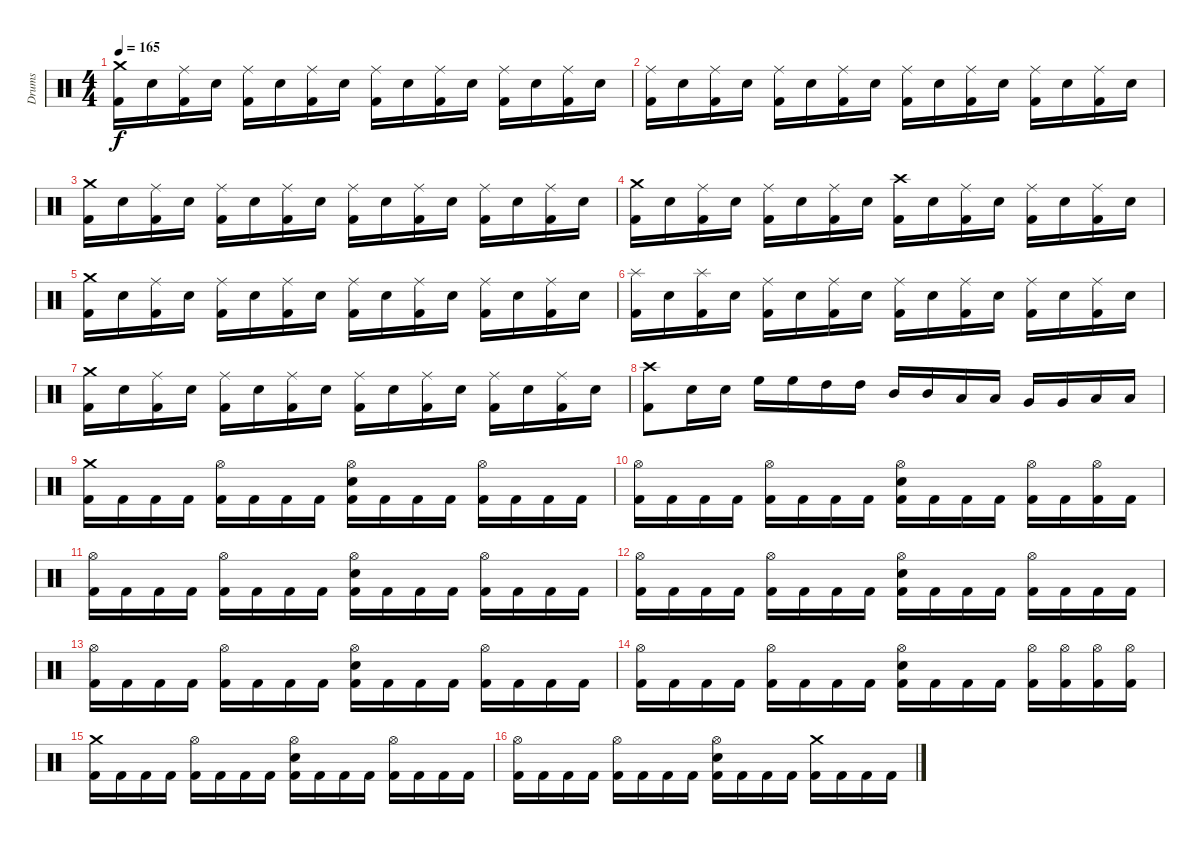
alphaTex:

\track ("Drums" "Drums") {instrument percussion}
\staff {score}
\articulation defaults
\ts (4 4)
\tempo 165
\clef neutral
\ks c
("Kick (hit) 2" "Crash medium (hit)").16{dy f} "Electric Snare (hit)".16 ("Kick (hit) 2" "Ride (middle)").16 "Electric Snare (hit)".16 ("Kick (hit) 2" "Ride (middle)").16 "Electric Snare (hit)".16 ("Kick (hit) 2" "Ride (middle)").16 "Electric Snare (hit)".16 ("Kick (hit) 2" "Ride (middle)").16 "Electric Snare (hit)".16 ("Kick (hit) 2" "Ride (middle)").16 "Electric Snare (hit)".16 ("Kick (hit) 2" "Ride (middle)").16 "Electric Snare (hit)".16 ("Kick (hit) 2" "Ride (middle)").16 "Electric Snare (hit)".16 |
("Kick (hit) 2" "Ride (middle)").16 "Electric Snare (hit)".16 ("Kick (hit) 2" "Ride (middle)").16 "Electric Snare (hit)".16 ("Kick (hit) 2" "Ride (middle)").16 "Electric Snare (hit)".16 ("Kick (hit) 2" "Ride (middle)").16 "Electric Snare (hit)".16 ("Kick (hit) 2" "Ride (middle)").16 "Electric Snare (hit)".16 ("Kick (hit) 2" "Ride (middle)").16 "Electric Snare (hit)".16 ("Kick (hit) 2" "Ride (middle)").16 "Electric Snare (hit)".16 ("Kick (hit) 2" "Ride (middle)").16 "Electric Snare (hit)".16 |
("Kick (hit) 2" "Crash medium (hit)").16 "Electric Snare (hit)".16 ("Kick (hit) 2" "Ride (middle)").16 "Electric Snare (hit)".16 ("Kick (hit) 2" "Ride (middle)").16 "Electric Snare (hit)".16 ("Kick (hit) 2" "Ride (middle)").16 "Electric Snare (hit)".16 ("Kick (hit) 2" "Ride (middle)").16 "Electric Snare (hit)".16 ("Kick (hit) 2" "Ride (middle)").16 "Electric Snare (hit)".16 ("Kick (hit) 2" "Ride (middle)").16 "Electric Snare (hit)".16 ("Kick (hit) 2" "Ride (middle)").16 "Electric Snare (hit)".16 |
("Kick (hit) 2" "Crash medium (hit)").16 "Electric Snare (hit)".16 ("Kick (hit) 2" "Ride (middle)").16 "Electric Snare (hit)".16 ("Kick (hit) 2" "Ride (middle)").16 "Electric Snare (hit)".16 ("Kick (hit) 2" "Ride (middle)").16 "Electric Snare (hit)".16 ("Kick (hit) 2" "Crash high (hit)").16 "Electric Snare (hit)".16 ("Kick (hit) 2" "Ride (middle)").16 "Electric Snare (hit)".16 ("Kick (hit) 2" "Ride (middle)").16 "Electric Snare (hit)".16 ("Kick (hit) 2" "Ride (middle)").16 "Electric Snare (hit)".16 |
("Kick (hit) 2" "Crash medium (hit)").16 "Electric Snare (hit)".16 ("Kick (hit) 2" "Ride (middle)").16 "Electric Snare (hit)".16 ("Kick (hit) 2" "Ride (middle)").16 "Electric Snare (hit)".16 ("Kick (hit) 2" "Ride (middle)").16 "Electric Snare (hit)".16 ("Kick (hit) 2" "Ride (middle)").16 "Electric Snare (hit)".16 ("Kick (hit) 2" "Ride (middle)").16 "Electric Snare (hit)".16 ("Kick (hit) 2" "Ride (middle)").16 "Electric Snare (hit)".16 ("Kick (hit) 2" "Ride (middle)").16 "Electric Snare (hit)".16 |
("Kick (hit) 2" "Splash (hit)").16 "Electric Snare (hit)".16 ("Kick (hit) 2" "Splash (hit)").16 "Electric Snare (hit)".16 ("Kick (hit) 2" "Ride (middle)").16 "Electric Snare (hit)".16 ("Kick (hit) 2" "Ride (middle)").16 "Electric Snare (hit)".16 ("Kick (hit) 2" "Ride (middle)").16 "Electric Snare (hit)".16 ("Kick (hit) 2" "Ride (middle)").16 "Electric Snare (hit)".16 ("Kick (hit) 2" "Ride (middle)").16 "Electric Snare (hit)".16 ("Kick (hit) 2" "Ride (middle)").16 "Electric Snare (hit)".16 |
("Kick (hit) 2" "Crash medium (hit)").16 "Electric Snare (hit)".16 ("Kick (hit) 2" "Ride (middle)").16 "Electric Snare (hit)".16 ("Kick (hit) 2" "Ride (middle)").16 "Electric Snare (hit)".16 ("Kick (hit) 2" "Ride (middle)").16 "Electric Snare (hit)".16 ("Kick (hit) 2" "Ride (middle)").16 "Electric Snare (hit)".16 ("Kick (hit) 2" "Ride (middle)").16 "Electric Snare (hit)".16 ("Kick (hit) 2" "Ride (middle)").16 "Electric Snare (hit)".16 ("Kick (hit) 2" "Ride (middle)").16 "Electric Snare (hit)".16 |
("Kick (hit) 2" "Crash high (hit)").8 "Electric Snare (hit)".16 "Electric Snare (hit)".16 "High Floor Tom (hit)".16 "High Floor Tom (hit)".16 "High Tom (hit)".16 "High Tom (hit)".16 "Mid Tom (hit)".16 "Mid Tom (hit)".16 "Low Tom (hit)".16 "Low Tom (hit)".16 "Very Low Tom (hit)".16 "Very Low Tom (hit)".16 "Low Floor Tom (hit)".16 "Low Floor Tom (hit)".16 |
("Kick (hit) 2" "Crash medium (hit)").16 "Kick (hit) 2".16 "Kick (hit) 2".16 "Kick (hit) 2".16 ("Kick (hit) 2" "Hi-Hat (open)").16 "Kick (hit) 2".16 "Kick (hit) 2".16 "Kick (hit) 2".16 ("Kick (hit) 2" "Electric Snare (hit)" "Hi-Hat (open)").16 "Kick (hit) 2".16 "Kick (hit) 2".16 "Kick (hit) 2".16 ("Kick (hit) 2" "Hi-Hat (open)").16 "Kick (hit) 2".16 "Kick (hit) 2".16 "Kick (hit) 2".16 |
("Kick (hit) 2" "Hi-Hat (open)").16 "Kick (hit) 2".16 "Kick (hit) 2".16 "Kick (hit) 2".16 ("Kick (hit) 2" "Hi-Hat (open)").16 "Kick (hit) 2".16 "Kick (hit) 2".16 "Kick (hit) 2".16 ("Kick (hit) 2" "Electric Snare (hit)" "Hi-Hat (open)").16 "Kick (hit) 2".16 "Kick (hit) 2".16 "Kick (hit) 2".16 ("Kick (hit) 2" "Hi-Hat (open)").16 "Kick (hit) 2".16 ("Kick (hit) 2" "Hi-Hat (open)").16 "Kick (hit) 2".16 |
("Kick (hit) 2" "Hi-Hat (open)").16 "Kick (hit) 2".16 "Kick (hit) 2".16 "Kick (hit) 2".16 ("Kick (hit) 2" "Hi-Hat (open)").16 "Kick (hit) 2".16 "Kick (hit) 2".16 "Kick (hit) 2".16 ("Kick (hit) 2" "Electric Snare (hit)" "Hi-Hat (open)").16 "Kick (hit) 2".16 "Kick (hit) 2".16 "Kick (hit) 2".16 ("Kick (hit) 2" "Hi-Hat (open)").16 "Kick (hit) 2".16 "Kick (hit) 2".16 "Kick (hit) 2".16 |
("Kick (hit) 2" "Hi-Hat (open)").16 "Kick (hit) 2".16 "Kick (hit) 2".16 "Kick (hit) 2".16 ("Kick (hit) 2" "Hi-Hat (open)").16 "Kick (hit) 2".16 "Kick (hit) 2".16 "Kick (hit) 2".16 ("Kick (hit) 2" "Electric Snare (hit)" "Hi-Hat (open)").16 "Kick (hit) 2".16 "Kick (hit) 2".16 "Kick (hit) 2".16 ("Kick (hit) 2" "Hi-Hat (open)").16 "Kick (hit) 2".16 "Kick (hit) 2".16 "Kick (hit) 2".16 |
("Kick (hit) 2" "Hi-Hat (open)").16 "Kick (hit) 2".16 "Kick (hit) 2".16 "Kick (hit) 2".16 ("Kick (hit) 2" "Hi-Hat (open)").16 "Kick (hit) 2".16 "Kick (hit) 2".16 "Kick (hit) 2".16 ("Kick (hit) 2" "Electric Snare (hit)" "Hi-Hat (open)").16 "Kick (hit) 2".16 "Kick (hit) 2".16 "Kick (hit) 2".16 ("Kick (hit) 2" "Hi-Hat (open)").16 "Kick (hit) 2".16 "Kick (hit) 2".16 "Kick (hit) 2".16 |
("Kick (hit) 2" "Hi-Hat (open)").16 "Kick (hit) 2".16 "Kick (hit) 2".16 "Kick (hit) 2".16 ("Kick (hit) 2" "Hi-Hat (open)").16 "Kick (hit) 2".16 "Kick (hit) 2".16 "Kick (hit) 2".16 ("Kick (hit) 2" "Electric Snare (hit)" "Hi-Hat (open)").16 "Kick (hit) 2".16 "Kick (hit) 2".16 "Kick (hit) 2".16 ("Kick (hit) 2" "Hi-Hat (open)").16 ("Kick (hit) 2" "Hi-Hat (open)").16 ("Kick (hit) 2" "Hi-Hat (open)").16 ("Kick (hit) 2" "Hi-Hat (open)").16 |
("Kick (hit) 2" "Crash medium (hit)").16 "Kick (hit) 2".16 "Kick (hit) 2".16 "Kick (hit) 2".16 ("Kick (hit) 2" "Hi-Hat (open)").16 "Kick (hit) 2".16 "Kick (hit) 2".16 "Kick (hit) 2".16 ("Kick (hit) 2" "Electric Snare (hit)" "Hi-Hat (open)").16 "Kick (hit) 2".16 "Kick (hit) 2".16 "Kick (hit) 2".16 ("Kick (hit) 2" "Hi-Hat (open)").16 "Kick (hit) 2".16 "Kick (hit) 2".16 "Kick (hit) 2".16 |
("Kick (hit) 2" "Hi-Hat (open)").16 "Kick (hit) 2".16 "Kick (hit) 2".16 "Kick (hit) 2".16 ("Kick (hit) 2" "Hi-Hat (open)").16 "Kick (hit) 2".16 "Kick (hit) 2".16 "Kick (hit) 2".16 ("Kick (hit) 2" "Electric Snare (hit)" "Hi-Hat (open)").16 "Kick (hit) 2".16 "Kick (hit) 2".16 "Kick (hit) 2".16 ("Kick (hit) 2" "Crash medium (hit)").16 "Kick (hit) 2".16 "Kick (hit) 2".16 "Kick (hit) 2".16
